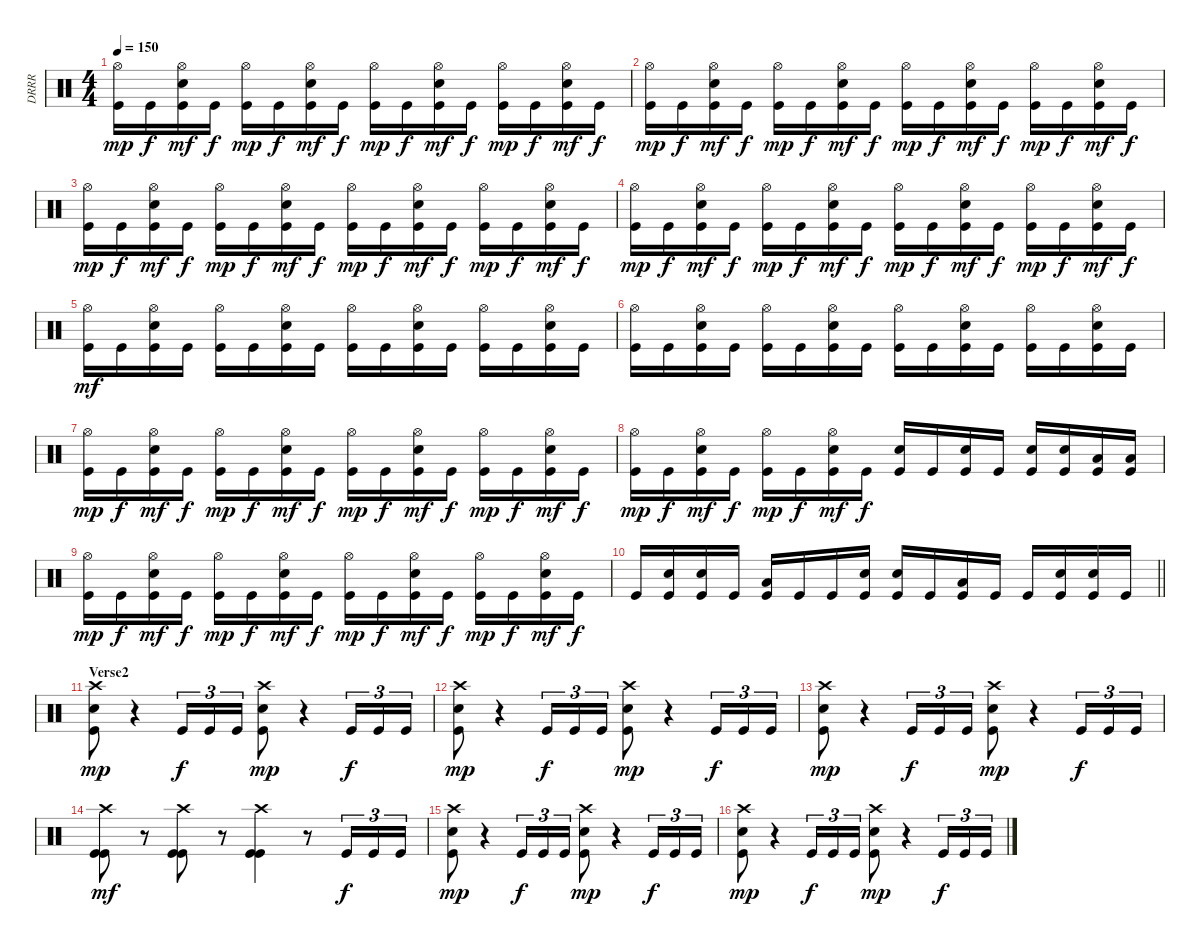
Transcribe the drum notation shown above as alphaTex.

\track ("DRRR" "DRRR") {instrument percussion}
\staff {score}
\articulation defaults
\ts (4 4)
\tempo 150
\clef neutral
\ks c
("Hi-Hat (open)" "Kick (hit)").16{dy mp} "Kick (hit)".16{dy f} ("Hi-Hat (open)" "Snare (hit) 2" "Kick (hit)").16{dy mf} "Kick (hit)".16{dy f} ("Hi-Hat (open)" "Kick (hit)").16{dy mp} "Kick (hit)".16{dy f} ("Hi-Hat (open)" "Snare (hit) 2" "Kick (hit)").16{dy mf} "Kick (hit)".16{dy f} ("Hi-Hat (open)" "Kick (hit)").16{dy mp} "Kick (hit)".16{dy f} ("Hi-Hat (open)" "Snare (hit) 2" "Kick (hit)").16{dy mf} "Kick (hit)".16{dy f} ("Hi-Hat (open)" "Kick (hit)").16{dy mp} "Kick (hit)".16{dy f} ("Hi-Hat (open)" "Snare (hit) 2" "Kick (hit)").16{dy mf} "Kick (hit)".16{dy f} |
("Hi-Hat (open)" "Kick (hit)").16{dy mp} "Kick (hit)".16{dy f} ("Hi-Hat (open)" "Snare (hit) 2" "Kick (hit)").16{dy mf} "Kick (hit)".16{dy f} ("Hi-Hat (open)" "Kick (hit)").16{dy mp} "Kick (hit)".16{dy f} ("Hi-Hat (open)" "Snare (hit) 2" "Kick (hit)").16{dy mf} "Kick (hit)".16{dy f} ("Hi-Hat (open)" "Kick (hit)").16{dy mp} "Kick (hit)".16{dy f} ("Hi-Hat (open)" "Snare (hit) 2" "Kick (hit)").16{dy mf} "Kick (hit)".16{dy f} ("Hi-Hat (open)" "Kick (hit)").16{dy mp} "Kick (hit)".16{dy f} ("Hi-Hat (open)" "Snare (hit) 2" "Kick (hit)").16{dy mf} "Kick (hit)".16{dy f} |
("Hi-Hat (open)" "Kick (hit)").16{dy mp} "Kick (hit)".16{dy f} ("Hi-Hat (open)" "Snare (hit) 2" "Kick (hit)").16{dy mf} "Kick (hit)".16{dy f} ("Hi-Hat (open)" "Kick (hit)").16{dy mp} "Kick (hit)".16{dy f} ("Hi-Hat (open)" "Snare (hit) 2" "Kick (hit)").16{dy mf} "Kick (hit)".16{dy f} ("Hi-Hat (open)" "Kick (hit)").16{dy mp} "Kick (hit)".16{dy f} ("Hi-Hat (open)" "Snare (hit) 2" "Kick (hit)").16{dy mf} "Kick (hit)".16{dy f} ("Hi-Hat (open)" "Kick (hit)").16{dy mp} "Kick (hit)".16{dy f} ("Hi-Hat (open)" "Snare (hit) 2" "Kick (hit)").16{dy mf} "Kick (hit)".16{dy f} |
("Hi-Hat (open)" "Kick (hit)").16{dy mp} "Kick (hit)".16{dy f} ("Hi-Hat (open)" "Snare (hit) 2" "Kick (hit)").16{dy mf} "Kick (hit)".16{dy f} ("Hi-Hat (open)" "Kick (hit)").16{dy mp} "Kick (hit)".16{dy f} ("Hi-Hat (open)" "Snare (hit) 2" "Kick (hit)").16{dy mf} "Kick (hit)".16{dy f} ("Hi-Hat (open)" "Kick (hit)").16{dy mp} "Kick (hit)".16{dy f} ("Hi-Hat (open)" "Snare (hit) 2" "Kick (hit)").16{dy mf} "Kick (hit)".16{dy f} ("Hi-Hat (open)" "Kick (hit)").16{dy mp} "Kick (hit)".16{dy f} ("Hi-Hat (open)" "Snare (hit) 2" "Kick (hit)").16{dy mf} "Kick (hit)".16{dy f} |
("Hi-Hat (open)" "Kick (hit)").16{dy mf} "Kick (hit)".16 ("Hi-Hat (open)" "Snare (hit) 2" "Kick (hit)").16 "Kick (hit)".16 ("Hi-Hat (open)" "Kick (hit)").16 "Kick (hit)".16 ("Hi-Hat (open)" "Snare (hit) 2" "Kick (hit)").16 "Kick (hit)".16 ("Hi-Hat (open)" "Kick (hit)").16 "Kick (hit)".16 ("Hi-Hat (open)" "Snare (hit) 2" "Kick (hit)").16 "Kick (hit)".16 ("Hi-Hat (open)" "Kick (hit)").16 "Kick (hit)".16 ("Hi-Hat (open)" "Snare (hit) 2" "Kick (hit)").16 "Kick (hit)".16 |
("Hi-Hat (open)" "Kick (hit)").16 "Kick (hit)".16 ("Hi-Hat (open)" "Snare (hit) 2" "Kick (hit)").16 "Kick (hit)".16 ("Hi-Hat (open)" "Kick (hit)").16 "Kick (hit)".16 ("Hi-Hat (open)" "Snare (hit) 2" "Kick (hit)").16 "Kick (hit)".16 ("Hi-Hat (open)" "Kick (hit)").16 "Kick (hit)".16 ("Hi-Hat (open)" "Snare (hit) 2" "Kick (hit)").16 "Kick (hit)".16 ("Hi-Hat (open)" "Kick (hit)").16 "Kick (hit)".16 ("Hi-Hat (open)" "Snare (hit) 2" "Kick (hit)").16 "Kick (hit)".16 |
("Hi-Hat (open)" "Kick (hit)").16{dy mp} "Kick (hit)".16{dy f} ("Hi-Hat (open)" "Snare (hit) 2" "Kick (hit)").16{dy mf} "Kick (hit)".16{dy f} ("Hi-Hat (open)" "Kick (hit)").16{dy mp} "Kick (hit)".16{dy f} ("Hi-Hat (open)" "Snare (hit) 2" "Kick (hit)").16{dy mf} "Kick (hit)".16{dy f} ("Hi-Hat (open)" "Kick (hit)").16{dy mp} "Kick (hit)".16{dy f} ("Hi-Hat (open)" "Snare (hit) 2" "Kick (hit)").16{dy mf} "Kick (hit)".16{dy f} ("Hi-Hat (open)" "Kick (hit)").16{dy mp} "Kick (hit)".16{dy f} ("Hi-Hat (open)" "Snare (hit) 2" "Kick (hit)").16{dy mf} "Kick (hit)".16{dy f} |
("Hi-Hat (open)" "Kick (hit)").16{dy mp} "Kick (hit)".16{dy f} ("Hi-Hat (open)" "Snare (hit) 2" "Kick (hit)").16{dy mf} "Kick (hit)".16{dy f} ("Hi-Hat (open)" "Kick (hit)").16{dy mp} "Kick (hit)".16{dy f} ("Hi-Hat (open)" "Snare (hit) 2" "Kick (hit)").16{dy mf} "Kick (hit)".16{dy f} ("Snare (hit) 2" "Kick (hit)").16 "Kick (hit)".16 ("Snare (hit) 2" "Kick (hit)").16 "Kick (hit)".16 ("Snare (hit) 2" "Kick (hit)").16 ("Snare (hit) 2" "Kick (hit)").16 ("Low Tom (hit)" "Kick (hit)").16 ("Low Tom (hit)" "Kick (hit)").16 |
("Hi-Hat (open)" "Kick (hit)").16{dy mp} "Kick (hit)".16{dy f} ("Hi-Hat (open)" "Snare (hit) 2" "Kick (hit)").16{dy mf} "Kick (hit)".16{dy f} ("Hi-Hat (open)" "Kick (hit)").16{dy mp} "Kick (hit)".16{dy f} ("Hi-Hat (open)" "Snare (hit) 2" "Kick (hit)").16{dy mf} "Kick (hit)".16{dy f} ("Hi-Hat (open)" "Kick (hit)").16{dy mp} "Kick (hit)".16{dy f} ("Hi-Hat (open)" "Snare (hit) 2" "Kick (hit)").16{dy mf} "Kick (hit)".16{dy f} ("Hi-Hat (open)" "Kick (hit)").16{dy mp} "Kick (hit)".16{dy f} ("Hi-Hat (open)" "Snare (hit) 2" "Kick (hit)").16{dy mf} "Kick (hit)".16{dy f} |
\barLineRight lightlight "Kick (hit)".16
("Snare (hit) 2" "Kick (hit)").16 ("Snare (hit) 2" "Kick (hit)").16 "Kick (hit)".16 ("Low Tom (hit)" "Kick (hit)").16 "Kick (hit)".16 "Kick (hit)".16 ("Snare (hit) 2" "Kick (hit)").16 ("Snare (hit) 2" "Kick (hit)").16 "Kick (hit)".16 ("Low Tom (hit)" "Kick (hit)").16 "Kick (hit)".16 "Kick (hit)".16 ("Snare (hit) 2" "Kick (hit)").16 ("Snare (hit) 2" "Kick (hit)").16 "Kick (hit)".16 |
\section ("" "Verse2")
("Crash high (hit)" "Snare (hit) 2" "Kick (hit)").8{dy mp} r.4 "Kick (hit)".16{tu (3 2) dy f} "Kick (hit)".16{tu (3 2)} "Kick (hit)".16{tu (3 2)} ("Crash high (hit)" "Snare (hit) 2" "Kick (hit)").8{dy mp} r.4 "Kick (hit)".16{tu (3 2) dy f} "Kick (hit)".16{tu (3 2)} "Kick (hit)".16{tu (3 2)} |
("Crash high (hit)" "Snare (hit) 2" "Kick (hit)").8{dy mp} r.4 "Kick (hit)".16{tu (3 2) dy f} "Kick (hit)".16{tu (3 2)} "Kick (hit)".16{tu (3 2)} ("Crash high (hit)" "Snare (hit) 2" "Kick (hit)").8{dy mp} r.4 "Kick (hit)".16{tu (3 2) dy f} "Kick (hit)".16{tu (3 2)} "Kick (hit)".16{tu (3 2)} |
("Crash high (hit)" "Snare (hit) 2" "Kick (hit)").8{dy mp} r.4 "Kick (hit)".16{tu (3 2) dy f} "Kick (hit)".16{tu (3 2)} "Kick (hit)".16{tu (3 2)} ("Crash high (hit)" "Snare (hit) 2" "Kick (hit)").8{dy mp} r.4 "Kick (hit)".16{tu (3 2) dy f} "Kick (hit)".16{tu (3 2)} "Kick (hit)".16{tu (3 2)} |
("Crash high (hit)" "Kick (hit)" "Kick (hit)").8{dy mf} r.8 ("Crash high (hit)" "Kick (hit)" "Kick (hit)").8 r.8 ("Crash high (hit)" "Kick (hit)" "Kick (hit)").4 r.8 "Kick (hit)".16{tu (3 2) dy f} "Kick (hit)".16{tu (3 2)} "Kick (hit)".16{tu (3 2)} |
("Crash high (hit)" "Snare (hit) 2" "Kick (hit)").8{dy mp} r.4 "Kick (hit)".16{tu (3 2) dy f} "Kick (hit)".16{tu (3 2)} "Kick (hit)".16{tu (3 2)} ("Crash high (hit)" "Snare (hit) 2" "Kick (hit)").8{dy mp} r.4 "Kick (hit)".16{tu (3 2) dy f} "Kick (hit)".16{tu (3 2)} "Kick (hit)".16{tu (3 2)} |
("Crash high (hit)" "Snare (hit) 2" "Kick (hit)").8{dy mp} r.4 "Kick (hit)".16{tu (3 2) dy f} "Kick (hit)".16{tu (3 2)} "Kick (hit)".16{tu (3 2)} ("Crash high (hit)" "Snare (hit) 2" "Kick (hit)").8{dy mp} r.4 "Kick (hit)".16{tu (3 2) dy f} "Kick (hit)".16{tu (3 2)} "Kick (hit)".16{tu (3 2)}
